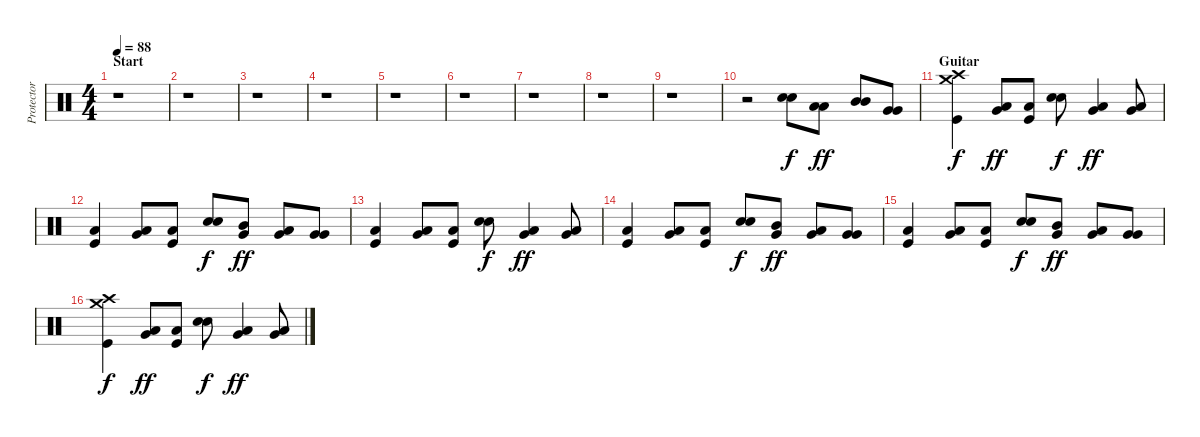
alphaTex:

\track ("Protector (Drums)" "Protector ") {instrument percussion}
\staff {score}
\articulation defaults
\ts (4 4)
\section ("" "Start")
\tempo 88
\clef neutral
\ks c
r.1{dy f} |
r.1 |
r.1 |
r.1 |
r.1 |
r.1 |
r.1 |
r.1 |
r.1 |
r.2 ("Electric Snare (hit)" "Snare (hit) 2").8 ("Low Tom (hit)" "Low Tom (hit)").8{bu 120 dy ff} ("Mid Tom (hit)" "Mid Tom (hit)").8{bu 120} ("Very Low Tom (hit)" "Very Low Tom (hit)").8{bu 120} |
\section ("" "Guitar")
("Crash high (hit)" "Crash medium (hit)" "Kick (hit)").4{dy f} ("Low Tom (hit)" "Very Low Tom (hit)").8{bu 120 dy ff} ("Low Floor Tom (hit)" "Kick (hit)").8 ("Electric Snare (hit)" "Snare (hit) 2").8{dy f} ("Low Tom (hit)" "Very Low Tom (hit)").4{bu 120 dy ff} ("Low Tom (hit)" "Very Low Tom (hit)").8{bu 120} |
("Low Floor Tom (hit)" "Kick (hit)").4 ("Low Tom (hit)" "Very Low Tom (hit)").8{bu 120} ("Low Floor Tom (hit)" "Kick (hit)").8 ("Electric Snare (hit)" "Snare (hit) 2").8{dy f} ("Mid Tom (hit)" "Very Low Tom (hit)").8{bu 120 dy ff} ("Low Tom (hit)" "Very Low Tom (hit)").8{bu 120} ("Very Low Tom (hit)" "Very Low Tom (hit)").8{bu 120} |
("Low Floor Tom (hit)" "Kick (hit)").4 ("Low Tom (hit)" "Very Low Tom (hit)").8{bu 120} ("Low Floor Tom (hit)" "Kick (hit)").8 ("Electric Snare (hit)" "Snare (hit) 2").8{dy f} ("Low Tom (hit)" "Very Low Tom (hit)").4{bu 120 dy ff} ("Low Tom (hit)" "Very Low Tom (hit)").8{bu 120} |
("Low Floor Tom (hit)" "Kick (hit)").4 ("Low Tom (hit)" "Very Low Tom (hit)").8{bu 120} ("Low Floor Tom (hit)" "Kick (hit)").8 ("Electric Snare (hit)" "Snare (hit) 2").8{dy f} ("Mid Tom (hit)" "Very Low Tom (hit)").8{bu 120 dy ff} ("Low Tom (hit)" "Very Low Tom (hit)").8{bu 120} ("Very Low Tom (hit)" "Very Low Tom (hit)").8{bu 120} |
("Low Floor Tom (hit)" "Kick (hit)").4 ("Low Tom (hit)" "Very Low Tom (hit)").8{bu 120} ("Low Floor Tom (hit)" "Kick (hit)").8 ("Electric Snare (hit)" "Snare (hit) 2").8{dy f} ("Mid Tom (hit)" "Very Low Tom (hit)").8{bu 120 dy ff} ("Low Tom (hit)" "Very Low Tom (hit)").8{bu 120} ("Very Low Tom (hit)" "Very Low Tom (hit)").8{bu 120} |
("Crash high (hit)" "Crash medium (hit)" "Kick (hit)").4{dy f} ("Low Tom (hit)" "Very Low Tom (hit)").8{bu 120 dy ff} ("Low Floor Tom (hit)" "Kick (hit)").8 ("Electric Snare (hit)" "Snare (hit) 2").8{dy f} ("Low Tom (hit)" "Very Low Tom (hit)").4{bu 120 dy ff} ("Low Tom (hit)" "Very Low Tom (hit)").8{bu 120}
